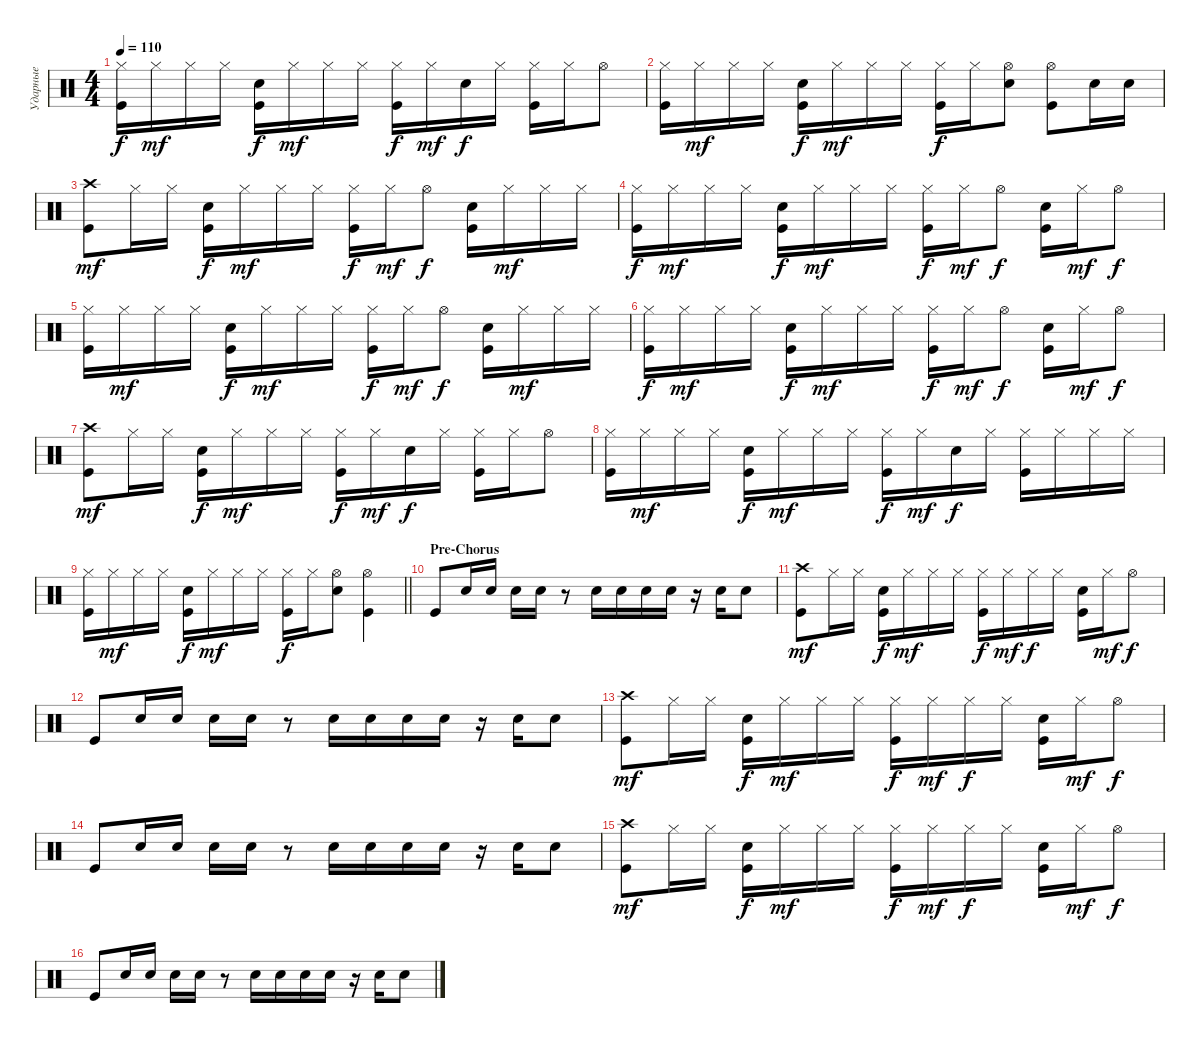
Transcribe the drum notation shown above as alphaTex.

\track ("Ударные" "Ударные") {instrument percussion}
\staff {score}
\articulation defaults
\ts (4 4)
\tempo 110
\clef neutral
\ks c
("Hi-Hat (closed)" "Kick (hit)").16{dy f} "Hi-Hat (closed)".16{dy mf} "Hi-Hat (closed)".16 "Hi-Hat (closed)".16 ("Snare (hit) 2" "Kick (hit)").16{dy f} "Hi-Hat (closed)".16{dy mf} "Hi-Hat (closed)".16 "Hi-Hat (closed)".16 ("Hi-Hat (closed)" "Kick (hit)").16{dy f} "Hi-Hat (closed)".16{dy mf} "Snare (hit) 2".16{dy f} "Hi-Hat (closed)".16 ("Hi-Hat (closed)" "Kick (hit)").16 "Hi-Hat (closed)".16 "Hi-Hat (open)".8 |
("Hi-Hat (closed)" "Kick (hit)").16 "Hi-Hat (closed)".16{dy mf} "Hi-Hat (closed)".16 "Hi-Hat (closed)".16 ("Snare (hit) 2" "Kick (hit)").16{dy f} "Hi-Hat (closed)".16{dy mf} "Hi-Hat (closed)".16 "Hi-Hat (closed)".16 ("Kick (hit)" "Hi-Hat (closed)").16{dy f} "Hi-Hat (closed)".16 ("Snare (hit) 2" "Hi-Hat (open)").8 ("Kick (hit)" "Hi-Hat (open)").8 "Snare (hit) 2".16 "Snare (hit) 2".16 |
("Crash high (hit)" "Kick (hit)").8{dy mf} "Hi-Hat (closed)".16 "Hi-Hat (closed)".16 ("Snare (hit) 2" "Kick (hit)").16{dy f} "Hi-Hat (closed)".16{dy mf} "Hi-Hat (closed)".16 "Hi-Hat (closed)".16 ("Hi-Hat (closed)" "Kick (hit)").16{dy f} "Hi-Hat (closed)".16{dy mf} "Hi-Hat (open)".8{dy f} ("Kick (hit)" "Snare (hit) 2").16 "Hi-Hat (closed)".16{dy mf} "Hi-Hat (closed)".16 "Hi-Hat (closed)".16 |
("Hi-Hat (closed)" "Kick (hit)").16{dy f} "Hi-Hat (closed)".16{dy mf} "Hi-Hat (closed)".16 "Hi-Hat (closed)".16 ("Snare (hit) 2" "Kick (hit)").16{dy f} "Hi-Hat (closed)".16{dy mf} "Hi-Hat (closed)".16 "Hi-Hat (closed)".16 ("Hi-Hat (closed)" "Kick (hit)").16{dy f} "Hi-Hat (closed)".16{dy mf} "Hi-Hat (open)".8{dy f} ("Kick (hit)" "Snare (hit) 2").16 "Hi-Hat (closed)".16{dy mf} "Hi-Hat (open)".8{dy f} |
("Hi-Hat (closed)" "Kick (hit)").16 "Hi-Hat (closed)".16{dy mf} "Hi-Hat (closed)".16 "Hi-Hat (closed)".16 ("Snare (hit) 2" "Kick (hit)").16{dy f} "Hi-Hat (closed)".16{dy mf} "Hi-Hat (closed)".16 "Hi-Hat (closed)".16 ("Hi-Hat (closed)" "Kick (hit)").16{dy f} "Hi-Hat (closed)".16{dy mf} "Hi-Hat (open)".8{dy f} ("Kick (hit)" "Snare (hit) 2").16 "Hi-Hat (closed)".16{dy mf} "Hi-Hat (closed)".16 "Hi-Hat (closed)".16 |
("Hi-Hat (closed)" "Kick (hit)").16{dy f} "Hi-Hat (closed)".16{dy mf} "Hi-Hat (closed)".16 "Hi-Hat (closed)".16 ("Snare (hit) 2" "Kick (hit)").16{dy f} "Hi-Hat (closed)".16{dy mf} "Hi-Hat (closed)".16 "Hi-Hat (closed)".16 ("Hi-Hat (closed)" "Kick (hit)").16{dy f} "Hi-Hat (closed)".16{dy mf} "Hi-Hat (open)".8{dy f} ("Kick (hit)" "Snare (hit) 2").16 "Hi-Hat (closed)".16{dy mf} "Hi-Hat (open)".8{dy f} |
("Crash high (hit)" "Kick (hit)").8{dy mf} "Hi-Hat (closed)".16 "Hi-Hat (closed)".16 ("Snare (hit) 2" "Kick (hit)").16{dy f} "Hi-Hat (closed)".16{dy mf} "Hi-Hat (closed)".16 "Hi-Hat (closed)".16 ("Hi-Hat (closed)" "Kick (hit)").16{dy f} "Hi-Hat (closed)".16{dy mf} "Snare (hit) 2".16{dy f} "Hi-Hat (closed)".16 ("Hi-Hat (closed)" "Kick (hit)").16 "Hi-Hat (closed)".16 "Hi-Hat (open)".8 |
("Hi-Hat (closed)" "Kick (hit)").16 "Hi-Hat (closed)".16{dy mf} "Hi-Hat (closed)".16 "Hi-Hat (closed)".16 ("Snare (hit) 2" "Kick (hit)").16{dy f} "Hi-Hat (closed)".16{dy mf} "Hi-Hat (closed)".16 "Hi-Hat (closed)".16 ("Hi-Hat (closed)" "Kick (hit)").16{dy f} "Hi-Hat (closed)".16{dy mf} "Snare (hit) 2".16{dy f} "Hi-Hat (closed)".16 ("Hi-Hat (closed)" "Kick (hit)").16 "Hi-Hat (closed)".16 "Hi-Hat (closed)".16 "Hi-Hat (closed)".16 |
\barLineRight lightlight
("Hi-Hat (closed)" "Kick (hit)").16 "Hi-Hat (closed)".16{dy mf} "Hi-Hat (closed)".16 "Hi-Hat (closed)".16 ("Snare (hit) 2" "Kick (hit)").16{dy f} "Hi-Hat (closed)".16{dy mf} "Hi-Hat (closed)".16 "Hi-Hat (closed)".16 ("Kick (hit)" "Hi-Hat (closed)").16{dy f} "Hi-Hat (closed)".16 ("Snare (hit) 2" "Hi-Hat (open)").8 ("Kick (hit)" "Hi-Hat (open)").4 |
\section ("" "Pre-Chorus")
"Kick (hit)".8 "Snare (hit) 2".16 "Snare (hit) 2".16 "Snare (hit) 2".16 "Snare (hit) 2".16 r.8 "Snare (hit) 2".16 "Snare (hit) 2".16 "Snare (hit) 2".16 "Snare (hit) 2".16 r.16 "Snare (hit) 2".16 "Snare (hit) 2".8 |
("Crash high (hit)" "Kick (hit)").8{dy mf} "Hi-Hat (closed)".16 "Hi-Hat (closed)".16 ("Snare (hit) 2" "Kick (hit)").16{dy f} "Hi-Hat (closed)".16{dy mf} "Hi-Hat (closed)".16 "Hi-Hat (closed)".16 ("Hi-Hat (closed)" "Kick (hit)").16{dy f} "Hi-Hat (closed)".16{dy mf} "Hi-Hat (closed)".16{dy f} "Hi-Hat (closed)".16 ("Kick (hit)" "Snare (hit) 2").16 "Hi-Hat (closed)".16{dy mf} "Hi-Hat (open)".8{dy f} |
"Kick (hit)".8 "Snare (hit) 2".16 "Snare (hit) 2".16 "Snare (hit) 2".16 "Snare (hit) 2".16 r.8 "Snare (hit) 2".16 "Snare (hit) 2".16 "Snare (hit) 2".16 "Snare (hit) 2".16 r.16 "Snare (hit) 2".16 "Snare (hit) 2".8 |
("Crash high (hit)" "Kick (hit)").8{dy mf} "Hi-Hat (closed)".16 "Hi-Hat (closed)".16 ("Snare (hit) 2" "Kick (hit)").16{dy f} "Hi-Hat (closed)".16{dy mf} "Hi-Hat (closed)".16 "Hi-Hat (closed)".16 ("Hi-Hat (closed)" "Kick (hit)").16{dy f} "Hi-Hat (closed)".16{dy mf} "Hi-Hat (closed)".16{dy f} "Hi-Hat (closed)".16 ("Kick (hit)" "Snare (hit) 2").16 "Hi-Hat (closed)".16{dy mf} "Hi-Hat (open)".8{dy f} |
"Kick (hit)".8 "Snare (hit) 2".16 "Snare (hit) 2".16 "Snare (hit) 2".16 "Snare (hit) 2".16 r.8 "Snare (hit) 2".16 "Snare (hit) 2".16 "Snare (hit) 2".16 "Snare (hit) 2".16 r.16 "Snare (hit) 2".16 "Snare (hit) 2".8 |
("Crash high (hit)" "Kick (hit)").8{dy mf} "Hi-Hat (closed)".16 "Hi-Hat (closed)".16 ("Snare (hit) 2" "Kick (hit)").16{dy f} "Hi-Hat (closed)".16{dy mf} "Hi-Hat (closed)".16 "Hi-Hat (closed)".16 ("Hi-Hat (closed)" "Kick (hit)").16{dy f} "Hi-Hat (closed)".16{dy mf} "Hi-Hat (closed)".16{dy f} "Hi-Hat (closed)".16 ("Kick (hit)" "Snare (hit) 2").16 "Hi-Hat (closed)".16{dy mf} "Hi-Hat (open)".8{dy f} |
"Kick (hit)".8 "Snare (hit) 2".16 "Snare (hit) 2".16 "Snare (hit) 2".16 "Snare (hit) 2".16 r.8 "Snare (hit) 2".16 "Snare (hit) 2".16 "Snare (hit) 2".16 "Snare (hit) 2".16 r.16 "Snare (hit) 2".16 "Snare (hit) 2".8
